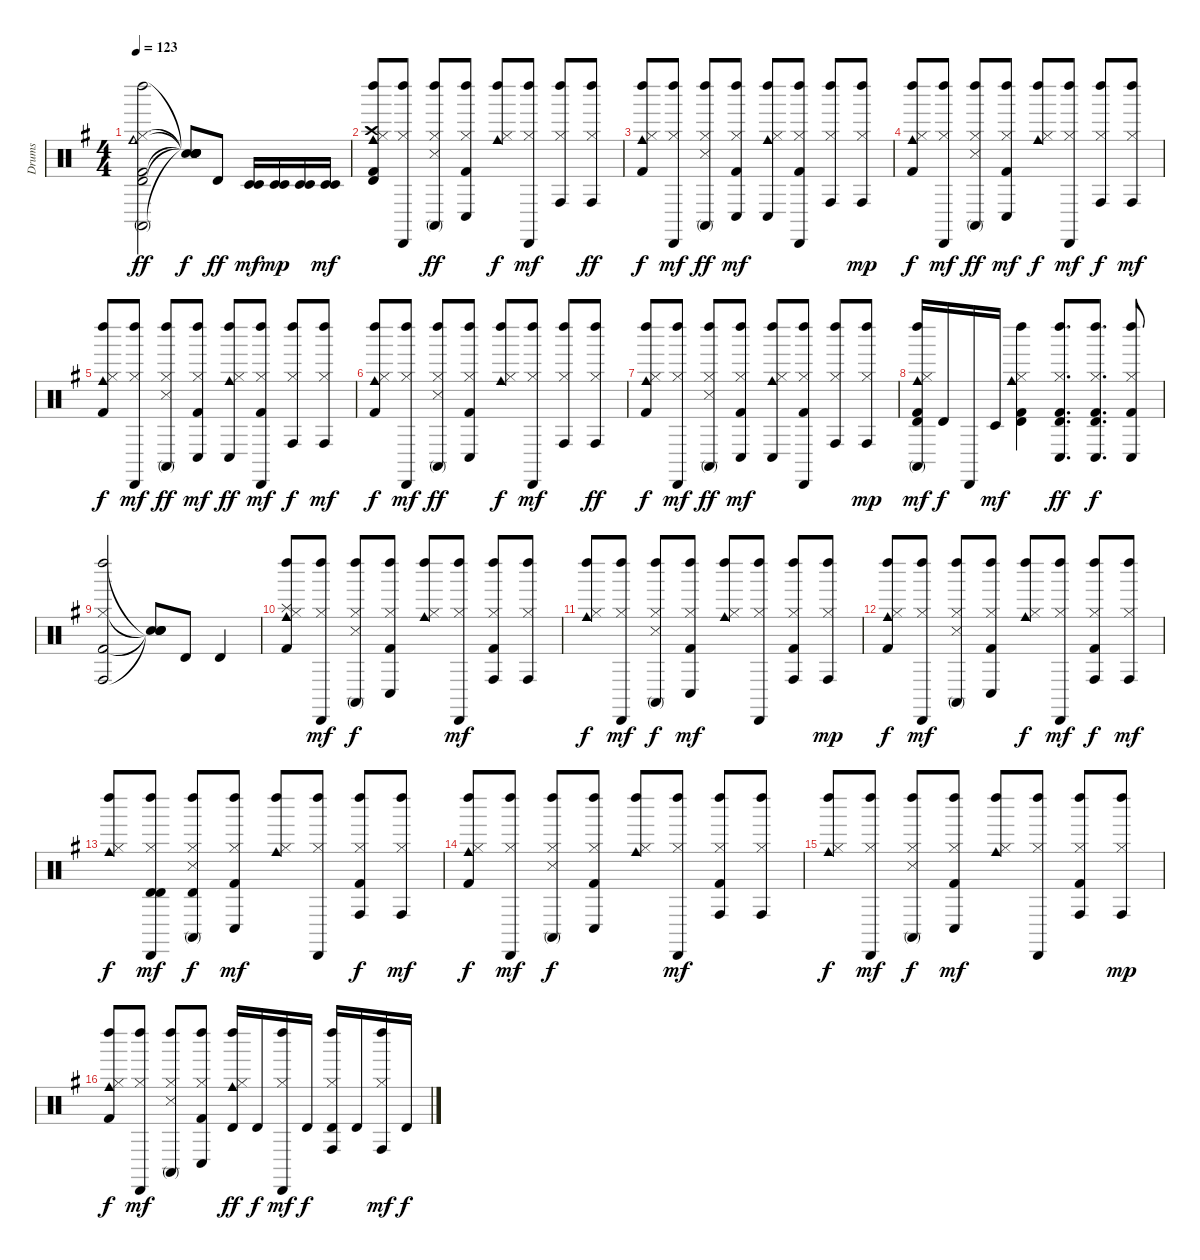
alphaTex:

\track ("Drums" "Drums") {instrument percussion}
\staff {score}
\articulation defaults
\ts (4 4)
\tempo 123
\clef neutral
\ks g
("Kick (hit) 2" "Hi-Hat (closed)" "Cowbell medium (hit)" "Conga high (mute)" "Timbale high (hit)" "Left Maraca (hit)").2{dy ff} ("Snare (hit)"{t} "Snare (hit)"{t} "Snare (hit)"{t} "Snare (hit)"{t} "Snare (hit)"{t} "Snare (hit)"{t}).8{dy f} "Timbale high (hit)".8{dy ff} ("Timbale low (hit)" "Timbale low (hit)").16{dy mf} ("Timbale low (hit)" "Timbale low (hit)").16{dy mp} ("Timbale low (hit)" "Timbale low (hit)").16 ("Timbale low (hit)" "Timbale low (hit)").16{dy mf} |
("Kick (hit) 2" "Hi-Hat (closed)" "Crash high (hit)" "Cowbell medium (hit)" "Timbale high (hit)" "Left Maraca (hit)").8 ("Hi-Hat (closed)" "Cabasa (hit)" "Left Maraca (hit)").8 ("Snare (side stick) 3" "Hi-Hat (closed)" "Conga high (mute)" "Left Maraca (hit)").8{dy ff} ("Kick (hit) 2" "Hi-Hat (closed)" "Conga low (hit)" "Left Maraca (hit)").8 ("Hi-Hat (closed)" "Cowbell medium (hit)" "Left Maraca (hit)").8{dy f} ("Hi-Hat (closed)" "Cabasa (hit)" "Left Maraca (hit)").8{dy mf} ("Hi-Hat (closed)" "Conga high (hit)" "Left Maraca (hit)").8 ("Hi-Hat (closed)" "Conga high (hit)" "Left Maraca (hit)").8{dy ff} |
("Kick (hit) 2" "Hi-Hat (closed)" "Cowbell medium (hit)" "Left Maraca (hit)").8{dy f} ("Hi-Hat (closed)" "Cabasa (hit)" "Left Maraca (hit)").8{dy mf} ("Snare (side stick) 3" "Hi-Hat (closed)" "Conga high (mute)" "Left Maraca (hit)").8{dy ff} ("Kick (hit) 2" "Hi-Hat (closed)" "Conga low (hit)" "Left Maraca (hit)").8{dy mf} ("Hi-Hat (closed)" "Cowbell medium (hit)" "Conga low (hit)" "Left Maraca (hit)").8 ("Kick (hit) 2" "Hi-Hat (closed)" "Cabasa (hit)" "Left Maraca (hit)").8 ("Hi-Hat (closed)" "Conga high (hit)" "Left Maraca (hit)").8 ("Hi-Hat (closed)" "Conga high (hit)" "Left Maraca (hit)").8{dy mp} |
("Kick (hit) 2" "Hi-Hat (closed)" "Cowbell medium (hit)" "Left Maraca (hit)").8{dy f} ("Hi-Hat (closed)" "Cabasa (hit)" "Left Maraca (hit)").8{dy mf} ("Snare (side stick) 3" "Hi-Hat (closed)" "Conga high (mute)" "Left Maraca (hit)").8{dy ff} ("Kick (hit) 2" "Hi-Hat (closed)" "Conga low (hit)" "Left Maraca (hit)").8{dy mf} ("Hi-Hat (closed)" "Cowbell medium (hit)" "Left Maraca (hit)").8{dy f} ("Hi-Hat (closed)" "Cabasa (hit)" "Left Maraca (hit)").8{dy mf} ("Hi-Hat (closed)" "Conga high (hit)" "Left Maraca (hit)").8{dy f} ("Hi-Hat (closed)" "Conga high (hit)" "Left Maraca (hit)").8{dy mf} |
("Kick (hit) 2" "Hi-Hat (closed)" "Cowbell medium (hit)" "Left Maraca (hit)").8{dy f} ("Hi-Hat (closed)" "Cabasa (hit)" "Left Maraca (hit)").8{dy mf} ("Snare (side stick) 3" "Hi-Hat (closed)" "Conga high (mute)" "Left Maraca (hit)").8{dy ff} ("Kick (hit) 2" "Hi-Hat (closed)" "Conga low (hit)" "Left Maraca (hit)").8{dy mf} ("Hi-Hat (closed)" "Cowbell medium (hit)" "Conga low (hit)" "Left Maraca (hit)").8{dy ff} ("Kick (hit) 2" "Hi-Hat (closed)" "Cabasa (hit)" "Left Maraca (hit)").8{dy mf} ("Hi-Hat (closed)" "Conga high (hit)" "Left Maraca (hit)").8{dy f} ("Hi-Hat (closed)" "Conga high (hit)" "Left Maraca (hit)").8{dy mf} |
("Kick (hit) 2" "Hi-Hat (closed)" "Cowbell medium (hit)" "Left Maraca (hit)").8{dy f} ("Hi-Hat (closed)" "Cabasa (hit)" "Left Maraca (hit)").8{dy mf} ("Snare (side stick) 3" "Hi-Hat (closed)" "Conga high (mute)" "Left Maraca (hit)").8{dy ff} ("Kick (hit) 2" "Hi-Hat (closed)" "Conga low (hit)" "Left Maraca (hit)").8 ("Hi-Hat (closed)" "Cowbell medium (hit)" "Left Maraca (hit)").8{dy f} ("Hi-Hat (closed)" "Cabasa (hit)" "Left Maraca (hit)").8{dy mf} ("Hi-Hat (closed)" "Conga high (hit)" "Left Maraca (hit)").8 ("Hi-Hat (closed)" "Conga high (hit)" "Left Maraca (hit)").8{dy ff} |
("Kick (hit) 2" "Hi-Hat (closed)" "Cowbell medium (hit)" "Left Maraca (hit)").8{dy f} ("Hi-Hat (closed)" "Cabasa (hit)" "Left Maraca (hit)").8{dy mf} ("Snare (side stick) 3" "Hi-Hat (closed)" "Conga high (mute)" "Left Maraca (hit)").8{dy ff} ("Kick (hit) 2" "Hi-Hat (closed)" "Conga low (hit)" "Left Maraca (hit)").8{dy mf} ("Hi-Hat (closed)" "Cowbell medium (hit)" "Conga low (hit)" "Left Maraca (hit)").8 ("Kick (hit) 2" "Hi-Hat (closed)" "Cabasa (hit)" "Left Maraca (hit)").8 ("Hi-Hat (closed)" "Conga high (hit)" "Left Maraca (hit)").8 ("Hi-Hat (closed)" "Conga high (hit)" "Left Maraca (hit)").8{dy mp} |
("Kick (hit) 2" "Hi-Hat (closed)" "Cowbell medium (hit)" "Conga high (mute)" "Timbale high (hit)" "Left Maraca (hit)").16{dy mf} "Timbale high (hit)".16{dy f} "Cabasa (hit)".16 "Timbale low (hit)".16{dy mf} ("Kick (hit) 2" "Hi-Hat (closed)" "Cowbell medium (hit)" "Timbale high (hit)" "Left Maraca (hit)").4 ("Kick (hit) 2" "Hi-Hat (closed)" "Conga low (hit)" "Timbale high (hit)" "Left Maraca (hit)").8{d dy ff} ("Kick (hit) 2" "Hi-Hat (closed)" "Conga low (hit)" "Timbale high (hit)" "Left Maraca (hit)").8{d dy f} ("Kick (hit) 2" "Hi-Hat (closed)" "Conga low (hit)" "Left Maraca (hit)").8 |
("Kick (hit) 2" "Hi-Hat (closed)" "Conga high (hit)" "Left Maraca (hit)").2 ("Snare (hit)"{t} "Snare (hit)"{t} "Snare (hit)"{t} "Snare (hit)"{t}).8 "Timbale high (hit)".8 "Timbale high (hit)".4 |
("Kick (hit) 2" "Hi-Hat (closed)" "Splash (hit)" "Cowbell medium (hit)" "Left Maraca (hit)").8 ("Hi-Hat (closed)" "Cabasa (hit)" "Left Maraca (hit)").8{dy mf} ("Snare (side stick) 3" "Hi-Hat (closed)" "Conga high (mute)" "Left Maraca (hit)").8{dy f} ("Kick (hit) 2" "Hi-Hat (closed)" "Conga low (hit)" "Left Maraca (hit)").8 ("Hi-Hat (closed)" "Cowbell medium (hit)" "Left Maraca (hit)").8 ("Hi-Hat (closed)" "Cabasa (hit)" "Left Maraca (hit)").8{dy mf} ("Kick (hit) 2" "Hi-Hat (closed)" "Conga high (hit)" "Left Maraca (hit)").8 ("Hi-Hat (closed)" "Conga high (hit)" "Left Maraca (hit)").8 |
("Hi-Hat (closed)" "Cowbell medium (hit)" "Left Maraca (hit)").8{dy f} ("Hi-Hat (closed)" "Cabasa (hit)" "Left Maraca (hit)").8{dy mf} ("Snare (side stick) 3" "Hi-Hat (closed)" "Conga high (mute)" "Left Maraca (hit)").8{dy f} ("Kick (hit) 2" "Hi-Hat (closed)" "Conga low (hit)" "Left Maraca (hit)").8{dy mf} ("Hi-Hat (closed)" "Cowbell medium (hit)" "Left Maraca (hit)").8 ("Hi-Hat (closed)" "Cabasa (hit)" "Left Maraca (hit)").8 ("Kick (hit) 2" "Hi-Hat (closed)" "Conga high (hit)" "Left Maraca (hit)").8 ("Hi-Hat (closed)" "Conga high (hit)" "Left Maraca (hit)").8{dy mp} |
("Kick (hit) 2" "Hi-Hat (closed)" "Cowbell medium (hit)" "Left Maraca (hit)").8{dy f} ("Hi-Hat (closed)" "Cabasa (hit)" "Left Maraca (hit)").8{dy mf} ("Snare (side stick) 3" "Hi-Hat (closed)" "Conga high (mute)" "Left Maraca (hit)").8 ("Kick (hit) 2" "Hi-Hat (closed)" "Conga low (hit)" "Left Maraca (hit)").8 ("Hi-Hat (closed)" "Cowbell medium (hit)" "Left Maraca (hit)").8{dy f} ("Hi-Hat (closed)" "Cabasa (hit)" "Left Maraca (hit)").8{dy mf} ("Kick (hit) 2" "Hi-Hat (closed)" "Conga high (hit)" "Left Maraca (hit)").8{dy f} ("Hi-Hat (closed)" "Conga high (hit)" "Left Maraca (hit)").8{dy mf} |
("Hi-Hat (closed)" "Cowbell medium (hit)" "Left Maraca (hit)").8{dy f} ("Hi-Hat (closed)" "Timbale high (hit)" "Timbale high (hit)" "Cabasa (hit)" "Left Maraca (hit)").8{dy mf} ("Snare (side stick) 3" "Hi-Hat (closed)" "Conga high (mute)" "Timbale high (hit)" "Left Maraca (hit)").8{dy f} ("Kick (hit) 2" "Hi-Hat (closed)" "Conga low (hit)" "Left Maraca (hit)").8{dy mf} ("Hi-Hat (closed)" "Cowbell medium (hit)" "Left Maraca (hit)").8 ("Hi-Hat (closed)" "Cabasa (hit)" "Left Maraca (hit)").8 ("Kick (hit) 2" "Hi-Hat (closed)" "Conga high (hit)" "Left Maraca (hit)").8{dy f} ("Hi-Hat (closed)" "Conga high (hit)" "Left Maraca (hit)").8{dy mf} |
("Kick (hit) 2" "Hi-Hat (closed)" "Cowbell medium (hit)" "Left Maraca (hit)").8{dy f} ("Hi-Hat (closed)" "Cabasa (hit)" "Left Maraca (hit)").8{dy mf} ("Snare (side stick) 3" "Hi-Hat (closed)" "Conga high (mute)" "Left Maraca (hit)").8{dy f} ("Kick (hit) 2" "Hi-Hat (closed)" "Conga low (hit)" "Left Maraca (hit)").8 ("Hi-Hat (closed)" "Cowbell medium (hit)" "Left Maraca (hit)").8 ("Hi-Hat (closed)" "Cabasa (hit)" "Left Maraca (hit)").8{dy mf} ("Kick (hit) 2" "Hi-Hat (closed)" "Conga high (hit)" "Left Maraca (hit)").8 ("Hi-Hat (closed)" "Conga high (hit)" "Left Maraca (hit)").8 |
("Hi-Hat (closed)" "Cowbell medium (hit)" "Left Maraca (hit)").8{dy f} ("Hi-Hat (closed)" "Cabasa (hit)" "Left Maraca (hit)").8{dy mf} ("Snare (side stick) 3" "Hi-Hat (closed)" "Conga high (mute)" "Left Maraca (hit)").8{dy f} ("Kick (hit) 2" "Hi-Hat (closed)" "Conga low (hit)" "Left Maraca (hit)").8{dy mf} ("Hi-Hat (closed)" "Cowbell medium (hit)" "Left Maraca (hit)").8 ("Hi-Hat (closed)" "Cabasa (hit)" "Left Maraca (hit)").8 ("Kick (hit) 2" "Hi-Hat (closed)" "Conga high (hit)" "Left Maraca (hit)").8 ("Hi-Hat (closed)" "Conga high (hit)" "Left Maraca (hit)").8{dy mp} |
("Kick (hit) 2" "Hi-Hat (closed)" "Cowbell medium (hit)" "Left Maraca (hit)").8{dy f} ("Hi-Hat (closed)" "Cabasa (hit)" "Left Maraca (hit)").8{dy mf} ("Snare (side stick) 3" "Hi-Hat (closed)" "Conga high (mute)" "Left Maraca (hit)").8 ("Kick (hit) 2" "Hi-Hat (closed)" "Conga low (hit)" "Left Maraca (hit)").8 ("Hi-Hat (closed)" "Cowbell medium (hit)" "Timbale high (hit)" "Left Maraca (hit)").16{dy ff} "Timbale high (hit)".16{dy f} ("Hi-Hat (closed)" "Cabasa (hit)" "Left Maraca (hit)").16{dy mf} "Timbale high (hit)".16{dy f} ("Hi-Hat (closed)" "Conga high (hit)" "Timbale high (hit)" "Left Maraca (hit)").16 "Timbale high (hit)".16 ("Hi-Hat (closed)" "Conga high (hit)" "Left Maraca (hit)").16{dy mf} "Timbale high (hit)".16{dy f}
